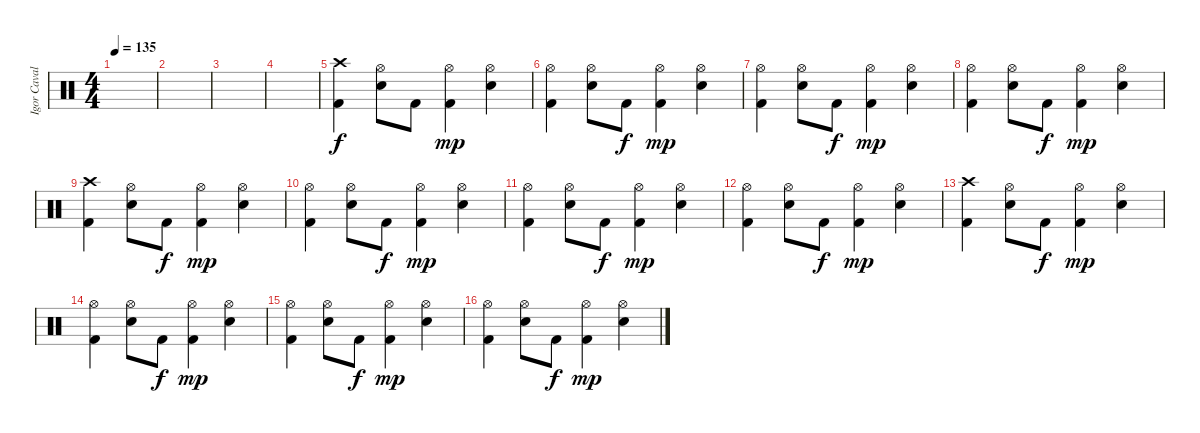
\track ("Igor Cavalera" "Igor Caval") {instrument percussion}
\staff {score}
\articulation defaults
\ts (4 4)
\tempo 135
\clef neutral
\ks c
|
|
|
|
("Crash high (hit)" "Kick (hit) 2").4 ("Hi-Hat (open)" "Electric Snare (hit)").8 "Kick (hit) 2".8{dy f} ("Hi-Hat (open)" "Kick (hit) 2").4{dy mp} ("Hi-Hat (open)" "Electric Snare (hit)").4 |
("Hi-Hat (open)" "Kick (hit) 2").4 ("Hi-Hat (open)" "Electric Snare (hit)").8 "Kick (hit) 2".8{dy f} ("Hi-Hat (open)" "Kick (hit) 2").4{dy mp} ("Hi-Hat (open)" "Electric Snare (hit)").4 |
("Hi-Hat (open)" "Kick (hit) 2").4 ("Hi-Hat (open)" "Electric Snare (hit)").8 "Kick (hit) 2".8{dy f} ("Hi-Hat (open)" "Kick (hit) 2").4{dy mp} ("Hi-Hat (open)" "Electric Snare (hit)").4 |
("Hi-Hat (open)" "Kick (hit) 2").4 ("Hi-Hat (open)" "Electric Snare (hit)").8 "Kick (hit) 2".8{dy f} ("Hi-Hat (open)" "Kick (hit) 2").4{dy mp} ("Hi-Hat (open)" "Electric Snare (hit)").4 |
("Crash high (hit)" "Kick (hit) 2").4 ("Hi-Hat (open)" "Electric Snare (hit)").8 "Kick (hit) 2".8{dy f} ("Hi-Hat (open)" "Kick (hit) 2").4{dy mp} ("Hi-Hat (open)" "Electric Snare (hit)").4 |
("Hi-Hat (open)" "Kick (hit) 2").4 ("Hi-Hat (open)" "Electric Snare (hit)").8 "Kick (hit) 2".8{dy f} ("Hi-Hat (open)" "Kick (hit) 2").4{dy mp} ("Hi-Hat (open)" "Electric Snare (hit)").4 |
("Hi-Hat (open)" "Kick (hit) 2").4 ("Hi-Hat (open)" "Electric Snare (hit)").8 "Kick (hit) 2".8{dy f} ("Hi-Hat (open)" "Kick (hit) 2").4{dy mp} ("Hi-Hat (open)" "Electric Snare (hit)").4 |
("Hi-Hat (open)" "Kick (hit) 2").4 ("Hi-Hat (open)" "Electric Snare (hit)").8 "Kick (hit) 2".8{dy f} ("Hi-Hat (open)" "Kick (hit) 2").4{dy mp} ("Hi-Hat (open)" "Electric Snare (hit)").4 |
("Crash high (hit)" "Kick (hit) 2").4 ("Hi-Hat (open)" "Snare (hit) 2").8 "Kick (hit) 2".8{dy f} ("Hi-Hat (open)" "Kick (hit) 2").4{dy mp} ("Hi-Hat (open)" "Snare (hit) 2").4 |
("Hi-Hat (open)" "Kick (hit) 2").4 ("Hi-Hat (open)" "Snare (hit) 2").8 "Kick (hit) 2".8{dy f} ("Hi-Hat (open)" "Kick (hit) 2").4{dy mp} ("Hi-Hat (open)" "Snare (hit) 2").4 |
("Hi-Hat (open)" "Kick (hit) 2").4 ("Hi-Hat (open)" "Snare (hit) 2").8 "Kick (hit) 2".8{dy f} ("Hi-Hat (open)" "Kick (hit) 2").4{dy mp} ("Hi-Hat (open)" "Snare (hit) 2").4 |
("Hi-Hat (open)" "Kick (hit) 2").4 ("Hi-Hat (open)" "Snare (hit) 2").8 "Kick (hit) 2".8{dy f} ("Hi-Hat (open)" "Kick (hit) 2").4{dy mp} ("Hi-Hat (open)" "Snare (hit) 2").4
